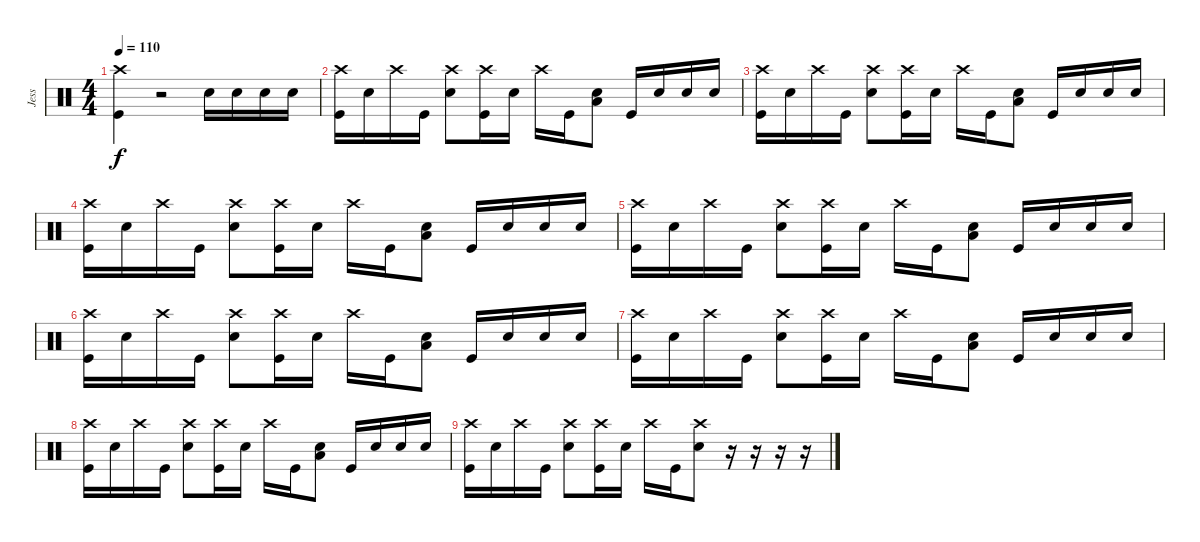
\track ("Jess" "Jess") {instrument percussion}
\staff {score}
\articulation defaults
\ts (4 4)
\tempo 110
\clef neutral
\ks c
("Crash high (hit)" "Kick (hit)").4{dy f} r.2 "Electric Snare (hit)".16 "Electric Snare (hit)".16 "Electric Snare (hit)".16 "Electric Snare (hit)".16 |
("Crash high (hit)" "Kick (hit)").16 "Electric Snare (hit)".16 "Crash high (hit)".16 "Kick (hit)".16 ("Crash high (hit)" "Electric Snare (hit)").8 ("Crash high (hit)" "Kick (hit)").16 "Electric Snare (hit)".16 "Crash high (hit)".16 "Kick (hit)".16 ("Electric Snare (hit)" "Low Floor Tom (hit)").8 "Kick (hit)".16 "Electric Snare (hit)".16 "Electric Snare (hit)".16 "Electric Snare (hit)".16 |
("Crash high (hit)" "Kick (hit)").16 "Electric Snare (hit)".16 "Crash high (hit)".16 "Kick (hit)".16 ("Crash high (hit)" "Electric Snare (hit)").8 ("Crash high (hit)" "Kick (hit)").16 "Electric Snare (hit)".16 "Crash high (hit)".16 "Kick (hit)".16 ("Electric Snare (hit)" "Low Floor Tom (hit)").8 "Kick (hit)".16 "Electric Snare (hit)".16 "Electric Snare (hit)".16 "Electric Snare (hit)".16 |
("Crash high (hit)" "Kick (hit)").16 "Electric Snare (hit)".16 "Crash high (hit)".16 "Kick (hit)".16 ("Crash high (hit)" "Electric Snare (hit)").8 ("Crash high (hit)" "Kick (hit)").16 "Electric Snare (hit)".16 "Crash high (hit)".16 "Kick (hit)".16 ("Electric Snare (hit)" "Low Floor Tom (hit)").8 "Kick (hit)".16 "Electric Snare (hit)".16 "Electric Snare (hit)".16 "Electric Snare (hit)".16 |
("Crash high (hit)" "Kick (hit)").16 "Electric Snare (hit)".16 "Crash high (hit)".16 "Kick (hit)".16 ("Crash high (hit)" "Electric Snare (hit)").8 ("Crash high (hit)" "Kick (hit)").16 "Electric Snare (hit)".16 "Crash high (hit)".16 "Kick (hit)".16 ("Electric Snare (hit)" "Low Floor Tom (hit)").8 "Kick (hit)".16 "Electric Snare (hit)".16 "Electric Snare (hit)".16 "Electric Snare (hit)".16 |
("Crash high (hit)" "Kick (hit)").16 "Electric Snare (hit)".16 "Crash high (hit)".16 "Kick (hit)".16 ("Crash high (hit)" "Electric Snare (hit)").8 ("Crash high (hit)" "Kick (hit)").16 "Electric Snare (hit)".16 "Crash high (hit)".16 "Kick (hit)".16 ("Electric Snare (hit)" "Low Floor Tom (hit)").8 "Kick (hit)".16 "Electric Snare (hit)".16 "Electric Snare (hit)".16 "Electric Snare (hit)".16 |
("Crash high (hit)" "Kick (hit)").16 "Electric Snare (hit)".16 "Crash high (hit)".16 "Kick (hit)".16 ("Crash high (hit)" "Electric Snare (hit)").8 ("Crash high (hit)" "Kick (hit)").16 "Electric Snare (hit)".16 "Crash high (hit)".16 "Kick (hit)".16 ("Electric Snare (hit)" "Low Floor Tom (hit)").8 "Kick (hit)".16 "Electric Snare (hit)".16 "Electric Snare (hit)".16 "Electric Snare (hit)".16 |
("Crash high (hit)" "Kick (hit)").16 "Electric Snare (hit)".16 "Crash high (hit)".16 "Kick (hit)".16 ("Crash high (hit)" "Electric Snare (hit)").8 ("Crash high (hit)" "Kick (hit)").16 "Electric Snare (hit)".16 "Crash high (hit)".16 "Kick (hit)".16 ("Electric Snare (hit)" "Low Floor Tom (hit)").8 "Kick (hit)".16 "Electric Snare (hit)".16 "Electric Snare (hit)".16 "Electric Snare (hit)".16 |
("Crash high (hit)" "Kick (hit)").16 "Electric Snare (hit)".16 "Crash high (hit)".16 "Kick (hit)".16 ("Crash high (hit)" "Electric Snare (hit)").8 ("Crash high (hit)" "Kick (hit)").16 "Electric Snare (hit)".16 "Crash high (hit)".16 "Kick (hit)".16 ("Crash high (hit)" "Electric Snare (hit)").8 r.16 r.16 r.16 r.16
